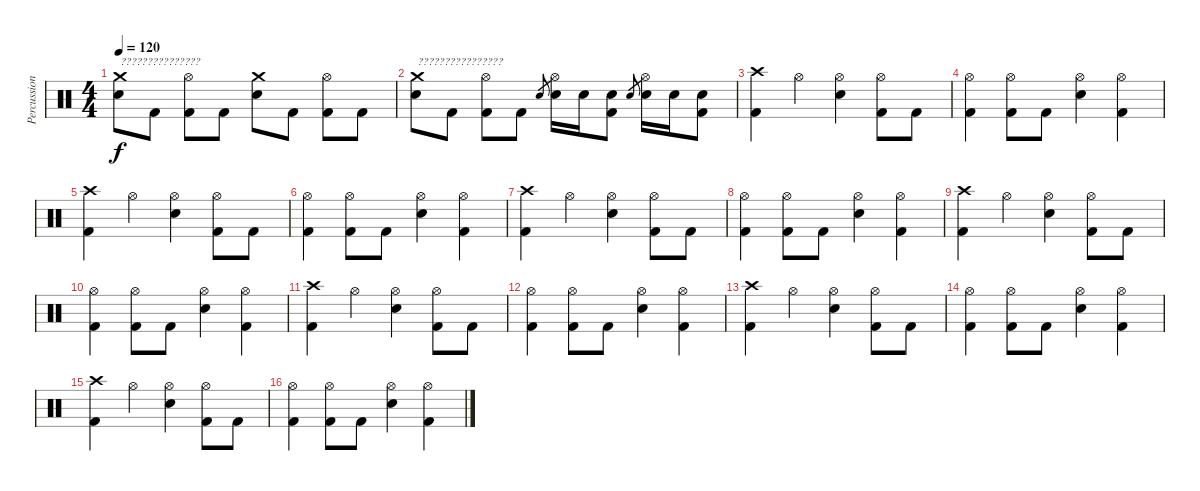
\track ("Percussion" "Percussion") {instrument percussion}
\staff {score}
\articulation defaults
\ts (4 4)
\tempo 120
\clef neutral
\ks c
("Crash medium (hit)" "Electric Snare (hit)").8{txt "???????????????" dy f} "Kick (hit) 2".8 ("Hi-Hat (open)" "Kick (hit) 2").8 "Kick (hit) 2".8 ("Crash medium (hit)" "Electric Snare (hit)").8 "Kick (hit) 2".8 ("Hi-Hat (open)" "Kick (hit) 2").8 "Kick (hit) 2".8 |
("Crash medium (hit)" "Electric Snare (hit)").8{txt "????????????????"} "Kick (hit) 2".8 ("Hi-Hat (open)" "Kick (hit) 2").8 "Kick (hit) 2".8 "Electric Snare (hit)".8{gr} ("Hi-Hat (open)" "Electric Snare (hit)").16 "Electric Snare (hit)".16 ("Kick (hit) 2" "Electric Snare (hit)").8 "Electric Snare (hit)".8{gr} ("Hi-Hat (open)" "Electric Snare (hit)").16 "Electric Snare (hit)".16 ("Kick (hit) 2" "Electric Snare (hit)").8 |
("Crash high (hit)" "Kick (hit) 2").4 "Hi-Hat (open)".4 ("Hi-Hat (open)" "Electric Snare (hit)").4 ("Hi-Hat (open)" "Kick (hit) 2").8 "Kick (hit) 2".8 |
("Hi-Hat (open)" "Kick (hit) 2").4 ("Hi-Hat (open)" "Kick (hit) 2").8 "Kick (hit) 2".8 ("Hi-Hat (open)" "Electric Snare (hit)").4 ("Hi-Hat (open)" "Kick (hit) 2").4 |
("Crash high (hit)" "Kick (hit) 2").4 "Hi-Hat (open)".4 ("Hi-Hat (open)" "Electric Snare (hit)").4 ("Hi-Hat (open)" "Kick (hit) 2").8 "Kick (hit) 2".8 |
("Hi-Hat (open)" "Kick (hit) 2").4 ("Hi-Hat (open)" "Kick (hit) 2").8 "Kick (hit) 2".8 ("Hi-Hat (open)" "Electric Snare (hit)").4 ("Hi-Hat (open)" "Kick (hit) 2").4 |
("Crash high (hit)" "Kick (hit) 2").4 "Hi-Hat (open)".4 ("Hi-Hat (open)" "Electric Snare (hit)").4 ("Hi-Hat (open)" "Kick (hit) 2").8 "Kick (hit) 2".8 |
("Hi-Hat (open)" "Kick (hit) 2").4 ("Hi-Hat (open)" "Kick (hit) 2").8 "Kick (hit) 2".8 ("Hi-Hat (open)" "Electric Snare (hit)").4 ("Hi-Hat (open)" "Kick (hit) 2").4 |
("Crash high (hit)" "Kick (hit) 2").4 "Hi-Hat (open)".4 ("Hi-Hat (open)" "Electric Snare (hit)").4 ("Hi-Hat (open)" "Kick (hit) 2").8 "Kick (hit) 2".8 |
("Hi-Hat (open)" "Kick (hit) 2").4 ("Hi-Hat (open)" "Kick (hit) 2").8 "Kick (hit) 2".8 ("Hi-Hat (open)" "Electric Snare (hit)").4 ("Hi-Hat (open)" "Kick (hit) 2").4 |
("Crash high (hit)" "Kick (hit) 2").4 "Hi-Hat (open)".4 ("Hi-Hat (open)" "Electric Snare (hit)").4 ("Hi-Hat (open)" "Kick (hit) 2").8 "Kick (hit) 2".8 |
("Hi-Hat (open)" "Kick (hit) 2").4 ("Hi-Hat (open)" "Kick (hit) 2").8 "Kick (hit) 2".8 ("Hi-Hat (open)" "Electric Snare (hit)").4 ("Hi-Hat (open)" "Kick (hit) 2").4 |
("Crash high (hit)" "Kick (hit) 2").4 "Hi-Hat (open)".4 ("Hi-Hat (open)" "Electric Snare (hit)").4 ("Hi-Hat (open)" "Kick (hit) 2").8 "Kick (hit) 2".8 |
("Hi-Hat (open)" "Kick (hit) 2").4 ("Hi-Hat (open)" "Kick (hit) 2").8 "Kick (hit) 2".8 ("Hi-Hat (open)" "Electric Snare (hit)").4 ("Hi-Hat (open)" "Kick (hit) 2").4 |
("Crash high (hit)" "Kick (hit) 2").4 "Hi-Hat (open)".4 ("Hi-Hat (open)" "Electric Snare (hit)").4 ("Hi-Hat (open)" "Kick (hit) 2").8 "Kick (hit) 2".8 |
("Hi-Hat (open)" "Kick (hit) 2").4 ("Hi-Hat (open)" "Kick (hit) 2").8 "Kick (hit) 2".8 ("Hi-Hat (open)" "Electric Snare (hit)").4 ("Hi-Hat (open)" "Kick (hit) 2").4
